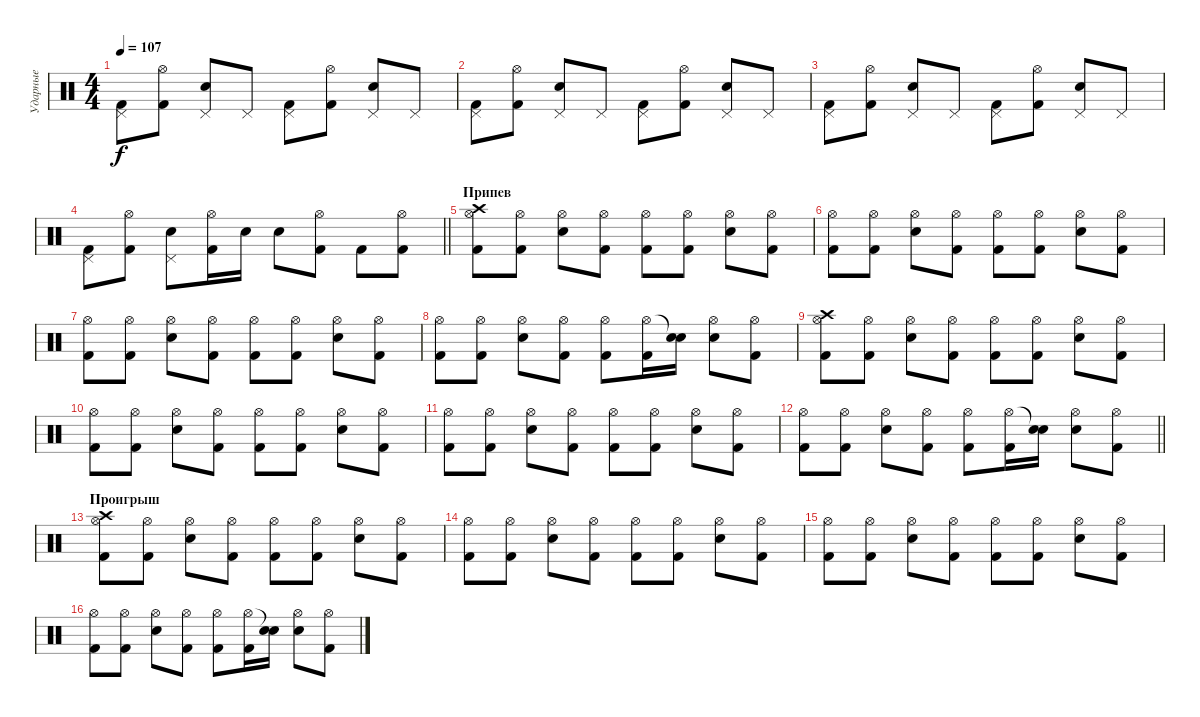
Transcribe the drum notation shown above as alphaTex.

\track ("Ударные" "Ударные") {instrument percussion}
\staff {score}
\articulation defaults
\ts (4 4)
\tempo 107
\clef neutral
\ks c
("Kick (hit) 2" "Pedal Hi-Hat (hit)").8{dy f} ("Kick (hit) 2" "Hi-Hat (open)").8 ("Pedal Hi-Hat (hit)" "Snare (hit) 2").8 "Pedal Hi-Hat (hit)".8 ("Kick (hit) 2" "Pedal Hi-Hat (hit)").8 ("Kick (hit) 2" "Hi-Hat (open)").8 ("Pedal Hi-Hat (hit)" "Snare (hit) 2").8 "Pedal Hi-Hat (hit)".8 |
("Kick (hit) 2" "Pedal Hi-Hat (hit)").8 ("Kick (hit) 2" "Hi-Hat (open)").8 ("Pedal Hi-Hat (hit)" "Snare (hit) 2").8 "Pedal Hi-Hat (hit)".8 ("Kick (hit) 2" "Pedal Hi-Hat (hit)").8 ("Kick (hit) 2" "Hi-Hat (open)").8 ("Pedal Hi-Hat (hit)" "Snare (hit) 2").8 "Pedal Hi-Hat (hit)".8 |
("Kick (hit) 2" "Pedal Hi-Hat (hit)").8 ("Kick (hit) 2" "Hi-Hat (open)").8 ("Pedal Hi-Hat (hit)" "Snare (hit) 2").8 "Pedal Hi-Hat (hit)".8 ("Kick (hit) 2" "Pedal Hi-Hat (hit)").8 ("Kick (hit) 2" "Hi-Hat (open)").8 ("Pedal Hi-Hat (hit)" "Snare (hit) 2").8 "Pedal Hi-Hat (hit)".8 |
\barLineRight lightlight
("Kick (hit) 2" "Pedal Hi-Hat (hit)").8 ("Kick (hit) 2" "Hi-Hat (open)").8 ("Pedal Hi-Hat (hit)" "Snare (hit) 2").8 ("Kick (hit) 2" "Hi-Hat (open)").16 "Snare (hit) 2".16 "Snare (hit) 2".8 ("Kick (hit) 2" "Hi-Hat (open)").8 "Kick (hit) 2".8 ("Kick (hit) 2" "Hi-Hat (open)").8 |
\section ("" "Припев")
("Kick (hit) 2" "Crash high (hit)" "Hi-Hat (open)").8 ("Kick (hit) 2" "Hi-Hat (open)").8 ("Snare (hit) 2" "Hi-Hat (open)").8 ("Kick (hit) 2" "Hi-Hat (open)").8 ("Kick (hit) 2" "Hi-Hat (open)").8 ("Kick (hit) 2" "Hi-Hat (open)").8 ("Snare (hit) 2" "Hi-Hat (open)").8 ("Kick (hit) 2" "Hi-Hat (open)").8 |
("Kick (hit) 2" "Hi-Hat (open)").8 ("Kick (hit) 2" "Hi-Hat (open)").8 ("Snare (hit) 2" "Hi-Hat (open)").8 ("Kick (hit) 2" "Hi-Hat (open)").8 ("Kick (hit) 2" "Hi-Hat (open)").8 ("Kick (hit) 2" "Hi-Hat (open)").8 ("Snare (hit) 2" "Hi-Hat (open)").8 ("Kick (hit) 2" "Hi-Hat (open)").8 |
("Kick (hit) 2" "Hi-Hat (open)").8 ("Kick (hit) 2" "Hi-Hat (open)").8 ("Snare (hit) 2" "Hi-Hat (open)").8 ("Kick (hit) 2" "Hi-Hat (open)").8 ("Kick (hit) 2" "Hi-Hat (open)").8 ("Kick (hit) 2" "Hi-Hat (open)").8 ("Snare (hit) 2" "Hi-Hat (open)").8 ("Kick (hit) 2" "Hi-Hat (open)").8 |
("Kick (hit) 2" "Hi-Hat (open)").8 ("Kick (hit) 2" "Hi-Hat (open)").8 ("Snare (hit) 2" "Hi-Hat (open)").8 ("Kick (hit) 2" "Hi-Hat (open)").8 ("Kick (hit) 2" "Hi-Hat (open)").8 ("Kick (hit) 2" "Hi-Hat (open)").16 ("Snare (hit) 2" "Snare (hit)"{t}).16 ("Snare (hit) 2" "Hi-Hat (open)").8 ("Kick (hit) 2" "Hi-Hat (open)").8 |
("Kick (hit) 2" "Crash high (hit)" "Hi-Hat (open)").8 ("Kick (hit) 2" "Hi-Hat (open)").8 ("Snare (hit) 2" "Hi-Hat (open)").8 ("Kick (hit) 2" "Hi-Hat (open)").8 ("Kick (hit) 2" "Hi-Hat (open)").8 ("Kick (hit) 2" "Hi-Hat (open)").8 ("Snare (hit) 2" "Hi-Hat (open)").8 ("Kick (hit) 2" "Hi-Hat (open)").8 |
("Kick (hit) 2" "Hi-Hat (open)").8 ("Kick (hit) 2" "Hi-Hat (open)").8 ("Snare (hit) 2" "Hi-Hat (open)").8 ("Kick (hit) 2" "Hi-Hat (open)").8 ("Kick (hit) 2" "Hi-Hat (open)").8 ("Kick (hit) 2" "Hi-Hat (open)").8 ("Snare (hit) 2" "Hi-Hat (open)").8 ("Kick (hit) 2" "Hi-Hat (open)").8 |
("Kick (hit) 2" "Hi-Hat (open)").8 ("Kick (hit) 2" "Hi-Hat (open)").8 ("Snare (hit) 2" "Hi-Hat (open)").8 ("Kick (hit) 2" "Hi-Hat (open)").8 ("Kick (hit) 2" "Hi-Hat (open)").8 ("Kick (hit) 2" "Hi-Hat (open)").8 ("Snare (hit) 2" "Hi-Hat (open)").8 ("Kick (hit) 2" "Hi-Hat (open)").8 |
\barLineRight lightlight
("Kick (hit) 2" "Hi-Hat (open)").8 ("Kick (hit) 2" "Hi-Hat (open)").8 ("Snare (hit) 2" "Hi-Hat (open)").8 ("Kick (hit) 2" "Hi-Hat (open)").8 ("Kick (hit) 2" "Hi-Hat (open)").8 ("Kick (hit) 2" "Hi-Hat (open)").16 ("Snare (hit) 2" "Snare (hit)"{t}).16 ("Snare (hit) 2" "Hi-Hat (open)").8 ("Kick (hit) 2" "Hi-Hat (open)").8 |
\section ("" "Проигрыш")
("Kick (hit) 2" "Crash high (hit)" "Hi-Hat (open)").8 ("Kick (hit) 2" "Hi-Hat (open)").8 ("Snare (hit) 2" "Hi-Hat (open)").8 ("Kick (hit) 2" "Hi-Hat (open)").8 ("Kick (hit) 2" "Hi-Hat (open)").8 ("Kick (hit) 2" "Hi-Hat (open)").8 ("Snare (hit) 2" "Hi-Hat (open)").8 ("Kick (hit) 2" "Hi-Hat (open)").8 |
("Kick (hit) 2" "Hi-Hat (open)").8 ("Kick (hit) 2" "Hi-Hat (open)").8 ("Snare (hit) 2" "Hi-Hat (open)").8 ("Kick (hit) 2" "Hi-Hat (open)").8 ("Kick (hit) 2" "Hi-Hat (open)").8 ("Kick (hit) 2" "Hi-Hat (open)").8 ("Snare (hit) 2" "Hi-Hat (open)").8 ("Kick (hit) 2" "Hi-Hat (open)").8 |
("Kick (hit) 2" "Hi-Hat (open)").8 ("Kick (hit) 2" "Hi-Hat (open)").8 ("Snare (hit) 2" "Hi-Hat (open)").8 ("Kick (hit) 2" "Hi-Hat (open)").8 ("Kick (hit) 2" "Hi-Hat (open)").8 ("Kick (hit) 2" "Hi-Hat (open)").8 ("Snare (hit) 2" "Hi-Hat (open)").8 ("Kick (hit) 2" "Hi-Hat (open)").8 |
("Kick (hit) 2" "Hi-Hat (open)").8 ("Kick (hit) 2" "Hi-Hat (open)").8 ("Snare (hit) 2" "Hi-Hat (open)").8 ("Kick (hit) 2" "Hi-Hat (open)").8 ("Kick (hit) 2" "Hi-Hat (open)").8 ("Kick (hit) 2" "Hi-Hat (open)").16 ("Snare (hit) 2" "Snare (hit)"{t}).16 ("Snare (hit) 2" "Hi-Hat (open)").8 ("Kick (hit) 2" "Hi-Hat (open)").8
